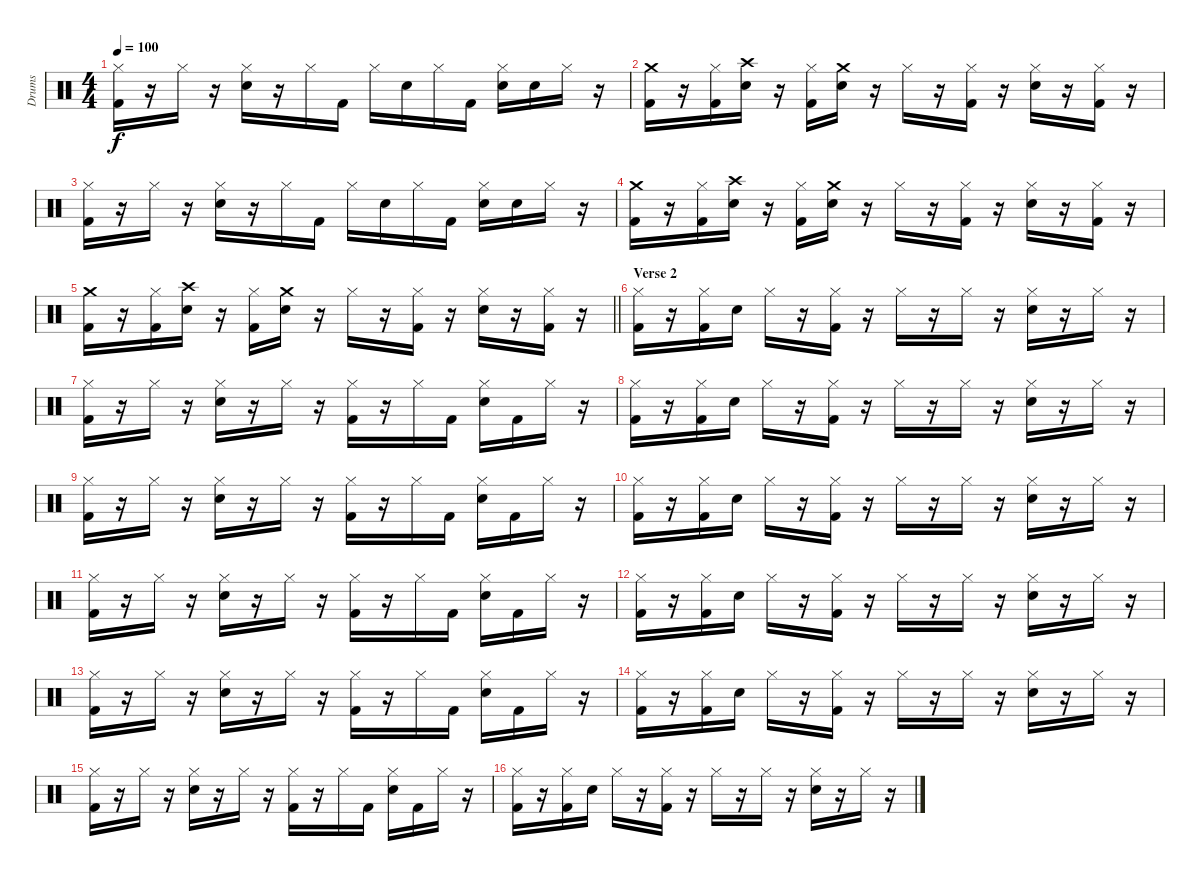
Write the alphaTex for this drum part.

\track ("Drums" "Drums") {instrument percussion}
\staff {score}
\articulation defaults
\ts (4 4)
\tempo 100
\clef neutral
\ks c
("Hi-Hat (closed)" "Kick (hit) 2").16{dy f} r.16 "Hi-Hat (closed)".16 r.16 ("Hi-Hat (closed)" "Snare (hit) 2").16 r.16 "Hi-Hat (closed)".16 "Kick (hit) 2".16 "Hi-Hat (closed)".16 "Snare (hit) 2".16 "Hi-Hat (closed)".16 "Kick (hit) 2".16 ("Hi-Hat (closed)" "Snare (hit) 2").16 "Snare (hit) 2".16 "Hi-Hat (closed)".16 r.16 |
("Crash medium (hit)" "Kick (hit) 2").16 r.16 ("Hi-Hat (closed)" "Kick (hit) 2").16 ("Crash high (hit)" "Snare (hit) 2").16 r.16 ("Hi-Hat (closed)" "Kick (hit) 2").16 ("Crash medium (hit)" "Snare (hit) 2").16 r.16 "Hi-Hat (closed)".16 r.16 ("Hi-Hat (closed)" "Kick (hit) 2").16 r.16 ("Hi-Hat (closed)" "Snare (hit) 2").16 r.16 ("Hi-Hat (closed)" "Kick (hit) 2").16 r.16 |
("Hi-Hat (closed)" "Kick (hit) 2").16 r.16 "Hi-Hat (closed)".16 r.16 ("Hi-Hat (closed)" "Snare (hit) 2").16 r.16 "Hi-Hat (closed)".16 "Kick (hit) 2".16 "Hi-Hat (closed)".16 "Snare (hit) 2".16 "Hi-Hat (closed)".16 "Kick (hit) 2".16 ("Hi-Hat (closed)" "Snare (hit) 2").16 "Snare (hit) 2".16 "Hi-Hat (closed)".16 r.16 |
("Crash medium (hit)" "Kick (hit) 2").16 r.16 ("Hi-Hat (closed)" "Kick (hit) 2").16 ("Crash high (hit)" "Snare (hit) 2").16 r.16 ("Hi-Hat (closed)" "Kick (hit) 2").16 ("Crash medium (hit)" "Snare (hit) 2").16 r.16 "Hi-Hat (closed)".16 r.16 ("Hi-Hat (closed)" "Kick (hit) 2").16 r.16 ("Hi-Hat (closed)" "Snare (hit) 2").16 r.16 ("Hi-Hat (closed)" "Kick (hit) 2").16 r.16 |
\barLineRight lightlight
("Crash medium (hit)" "Kick (hit) 2").16 r.16 ("Hi-Hat (closed)" "Kick (hit) 2").16 ("Crash high (hit)" "Snare (hit) 2").16 r.16 ("Hi-Hat (closed)" "Kick (hit) 2").16 ("Crash medium (hit)" "Snare (hit) 2").16 r.16 "Hi-Hat (closed)".16 r.16 ("Hi-Hat (closed)" "Kick (hit) 2").16 r.16 ("Hi-Hat (closed)" "Snare (hit) 2").16 r.16 ("Hi-Hat (closed)" "Kick (hit) 2").16 r.16 |
\section ("" "Verse 2")
("Hi-Hat (closed)" "Kick (hit) 2").16 r.16 ("Hi-Hat (closed)" "Kick (hit) 2").16 "Snare (hit) 2".16 "Hi-Hat (closed)".16 r.16 ("Hi-Hat (closed)" "Kick (hit) 2").16 r.16 "Hi-Hat (closed)".16 r.16 "Hi-Hat (closed)".16 r.16 ("Hi-Hat (closed)" "Snare (hit) 2").16 r.16 "Hi-Hat (closed)".16 r.16 |
("Hi-Hat (closed)" "Kick (hit) 2").16 r.16 "Hi-Hat (closed)".16 r.16 ("Hi-Hat (closed)" "Snare (hit) 2").16 r.16 "Hi-Hat (closed)".16 r.16 ("Hi-Hat (closed)" "Kick (hit) 2").16 r.16 "Hi-Hat (closed)".16 "Kick (hit) 2".16 ("Hi-Hat (closed)" "Snare (hit) 2").16 "Kick (hit) 2".16 "Hi-Hat (closed)".16 r.16 |
("Hi-Hat (closed)" "Kick (hit) 2").16 r.16 ("Hi-Hat (closed)" "Kick (hit) 2").16 "Snare (hit) 2".16 "Hi-Hat (closed)".16 r.16 ("Hi-Hat (closed)" "Kick (hit) 2").16 r.16 "Hi-Hat (closed)".16 r.16 "Hi-Hat (closed)".16 r.16 ("Hi-Hat (closed)" "Snare (hit) 2").16 r.16 "Hi-Hat (closed)".16 r.16 |
("Hi-Hat (closed)" "Kick (hit) 2").16 r.16 "Hi-Hat (closed)".16 r.16 ("Hi-Hat (closed)" "Snare (hit) 2").16 r.16 "Hi-Hat (closed)".16 r.16 ("Hi-Hat (closed)" "Kick (hit) 2").16 r.16 "Hi-Hat (closed)".16 "Kick (hit) 2".16 ("Hi-Hat (closed)" "Snare (hit) 2").16 "Kick (hit) 2".16 "Hi-Hat (closed)".16 r.16 |
("Hi-Hat (closed)" "Kick (hit) 2").16 r.16 ("Hi-Hat (closed)" "Kick (hit) 2").16 "Snare (hit) 2".16 "Hi-Hat (closed)".16 r.16 ("Hi-Hat (closed)" "Kick (hit) 2").16 r.16 "Hi-Hat (closed)".16 r.16 "Hi-Hat (closed)".16 r.16 ("Hi-Hat (closed)" "Snare (hit) 2").16 r.16 "Hi-Hat (closed)".16 r.16 |
("Hi-Hat (closed)" "Kick (hit) 2").16 r.16 "Hi-Hat (closed)".16 r.16 ("Hi-Hat (closed)" "Snare (hit) 2").16 r.16 "Hi-Hat (closed)".16 r.16 ("Hi-Hat (closed)" "Kick (hit) 2").16 r.16 "Hi-Hat (closed)".16 "Kick (hit) 2".16 ("Hi-Hat (closed)" "Snare (hit) 2").16 "Kick (hit) 2".16 "Hi-Hat (closed)".16 r.16 |
("Hi-Hat (closed)" "Kick (hit) 2").16 r.16 ("Hi-Hat (closed)" "Kick (hit) 2").16 "Snare (hit) 2".16 "Hi-Hat (closed)".16 r.16 ("Hi-Hat (closed)" "Kick (hit) 2").16 r.16 "Hi-Hat (closed)".16 r.16 "Hi-Hat (closed)".16 r.16 ("Hi-Hat (closed)" "Snare (hit) 2").16 r.16 "Hi-Hat (closed)".16 r.16 |
("Hi-Hat (closed)" "Kick (hit) 2").16 r.16 "Hi-Hat (closed)".16 r.16 ("Hi-Hat (closed)" "Snare (hit) 2").16 r.16 "Hi-Hat (closed)".16 r.16 ("Hi-Hat (closed)" "Kick (hit) 2").16 r.16 "Hi-Hat (closed)".16 "Kick (hit) 2".16 ("Hi-Hat (closed)" "Snare (hit) 2").16 "Kick (hit) 2".16 "Hi-Hat (closed)".16 r.16 |
("Hi-Hat (closed)" "Kick (hit) 2").16 r.16 ("Hi-Hat (closed)" "Kick (hit) 2").16 "Snare (hit) 2".16 "Hi-Hat (closed)".16 r.16 ("Hi-Hat (closed)" "Kick (hit) 2").16 r.16 "Hi-Hat (closed)".16 r.16 "Hi-Hat (closed)".16 r.16 ("Hi-Hat (closed)" "Snare (hit) 2").16 r.16 "Hi-Hat (closed)".16 r.16 |
("Hi-Hat (closed)" "Kick (hit) 2").16 r.16 "Hi-Hat (closed)".16 r.16 ("Hi-Hat (closed)" "Snare (hit) 2").16 r.16 "Hi-Hat (closed)".16 r.16 ("Hi-Hat (closed)" "Kick (hit) 2").16 r.16 "Hi-Hat (closed)".16 "Kick (hit) 2".16 ("Hi-Hat (closed)" "Snare (hit) 2").16 "Kick (hit) 2".16 "Hi-Hat (closed)".16 r.16 |
("Hi-Hat (closed)" "Kick (hit) 2").16 r.16 ("Hi-Hat (closed)" "Kick (hit) 2").16 "Snare (hit) 2".16 "Hi-Hat (closed)".16 r.16 ("Hi-Hat (closed)" "Kick (hit) 2").16 r.16 "Hi-Hat (closed)".16 r.16 "Hi-Hat (closed)".16 r.16 ("Hi-Hat (closed)" "Snare (hit) 2").16 r.16 "Hi-Hat (closed)".16 r.16
